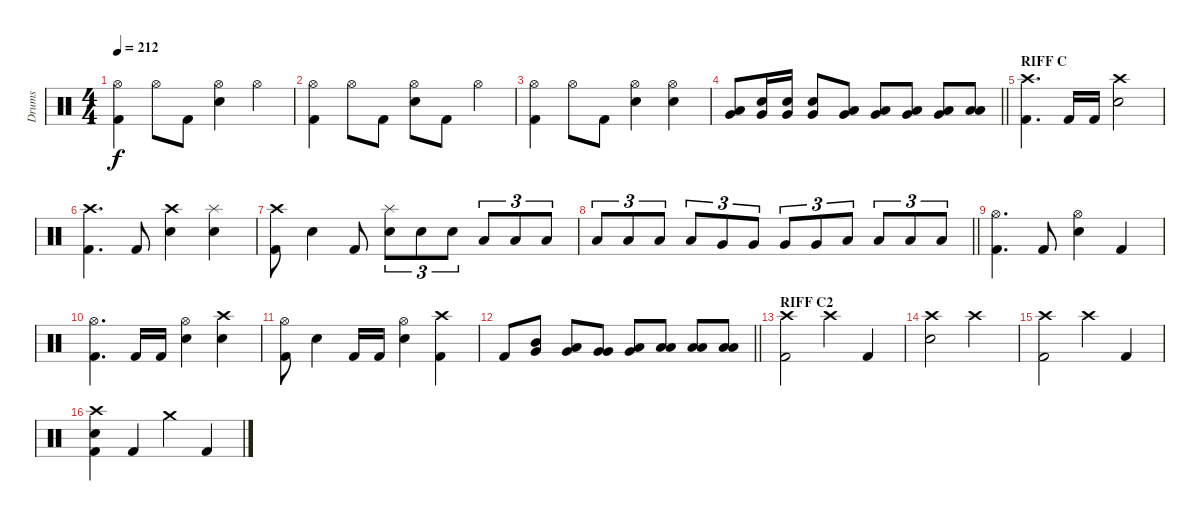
\track ("Drums" "Drums") {instrument percussion}
\staff {score}
\articulation defaults
\ts (4 4)
\tempo 212
\clef neutral
\ks c
("Hi-Hat (open)" "Kick (hit) 2").4{dy f} "Hi-Hat (open)".8 "Kick (hit) 2".8 ("Hi-Hat (open)" "Snare (hit) 2").4 "Hi-Hat (open)".4 |
("Hi-Hat (open)" "Kick (hit) 2").4 "Hi-Hat (open)".8 "Kick (hit) 2".8 ("Hi-Hat (open)" "Snare (hit) 2").8 "Kick (hit) 2".8 "Hi-Hat (open)".4 |
("Hi-Hat (open)" "Kick (hit) 2").4 "Hi-Hat (open)".8 "Kick (hit) 2".8 ("Hi-Hat (open)" "Snare (hit) 2").4 ("Hi-Hat (open)" "Snare (hit) 2").4 |
\barLineRight lightlight
("Low Tom (hit)" "Very Low Tom (hit)").8 ("Snare (hit) 2" "Very Low Tom (hit)").16 ("Snare (hit) 2" "Very Low Tom (hit)").16 ("Snare (hit) 2" "Very Low Tom (hit)").8 ("Low Tom (hit)" "Very Low Tom (hit)").8 ("Low Tom (hit)" "Very Low Tom (hit)").8 ("Very Low Tom (hit)" "Low Floor Tom (hit)").8 ("Very Low Tom (hit)" "Low Floor Tom (hit)").8 ("Low Floor Tom (hit)" "Low Floor Tom (hit)").8 |
\section ("" "RIFF C")
("Crash high (hit)" "Kick (hit) 2").4{d} "Kick (hit) 2".16 "Kick (hit) 2".16 ("Crash high (hit)" "Snare (hit) 2").2 |
("Crash high (hit)" "Kick (hit) 2").4{d} "Kick (hit) 2".8 ("Crash high (hit)" "Snare (hit) 2").4 ("Splash (hit)" "Snare (hit) 2").4 |
("Crash high (hit)" "Kick (hit) 2").8 "Snare (hit) 2".4 "Kick (hit) 2".8 ("Splash (hit)" "Snare (hit) 2").8{tu (3 2)} "Snare (hit) 2".8{tu (3 2)} "Snare (hit) 2".8{tu (3 2)} "Low Tom (hit)".8{tu (3 2)} "Low Tom (hit)".8{tu (3 2)} "Low Tom (hit)".8{tu (3 2)} |
\barLineRight lightlight "Low Tom (hit)".8{tu (3 2)} "Low Tom (hit)".8{tu (3 2)} "Low Tom (hit)".8{tu (3 2)} "Low Tom (hit)".8{tu (3 2)} "Very Low Tom (hit)".8{tu (3 2)} "Very Low Tom (hit)".8{tu (3 2)} "Very Low Tom (hit)".8{tu (3 2)} "Very Low Tom (hit)".8{tu (3 2)} "Low Floor Tom (hit)".8{tu (3 2)} "Low Floor Tom (hit)".8{tu (3 2)} "Low Floor Tom (hit)".8{tu (3 2)} "Low Floor Tom (hit)".8{tu (3 2)}
|
("Hi-Hat (open)" "Kick (hit) 2").4{d} "Kick (hit) 2".8 ("Hi-Hat (open)" "Snare (hit) 2").4 "Kick (hit) 2".4 |
("Hi-Hat (open)" "Kick (hit) 2").4{d} "Kick (hit) 2".16 "Kick (hit) 2".16 ("Hi-Hat (open)" "Snare (hit) 2").4 ("Crash high (hit)" "Snare (hit) 2").4 |
("Hi-Hat (open)" "Kick (hit) 2").8 "Snare (hit) 2".4 "Kick (hit) 2".16 "Kick (hit) 2".16 ("Hi-Hat (open)" "Snare (hit) 2").4 ("Crash high (hit)" "Kick (hit) 2").4 |
\barLineRight lightlight "Kick (hit) 2".8
("Mid Tom (hit)" "Very Low Tom (hit)").8 ("Low Tom (hit)" "Very Low Tom (hit)").8 ("Very Low Tom (hit)" "Very Low Tom (hit)").8 ("Very Low Tom (hit)" "Low Floor Tom (hit)").8 ("Low Floor Tom (hit)" "Low Floor Tom (hit)").8 ("Low Floor Tom (hit)" "Low Floor Tom (hit)").8 ("Low Floor Tom (hit)" "Low Floor Tom (hit)").8 |
\section ("" "RIFF C2")
("Crash high (hit)" "Kick (hit) 2").2 "Crash high (hit)".4 "Kick (hit) 2".4 |
("Crash high (hit)" "Snare (hit) 2").2 "Crash high (hit)".2 |
("Crash high (hit)" "Kick (hit) 2").2 "Crash high (hit)".4 "Kick (hit) 2".4 |
("Crash high (hit)" "Snare (hit) 2" "Kick (hit) 2").4 "Kick (hit) 2".4 "Crash medium (hit)".4 "Kick (hit) 2".4
